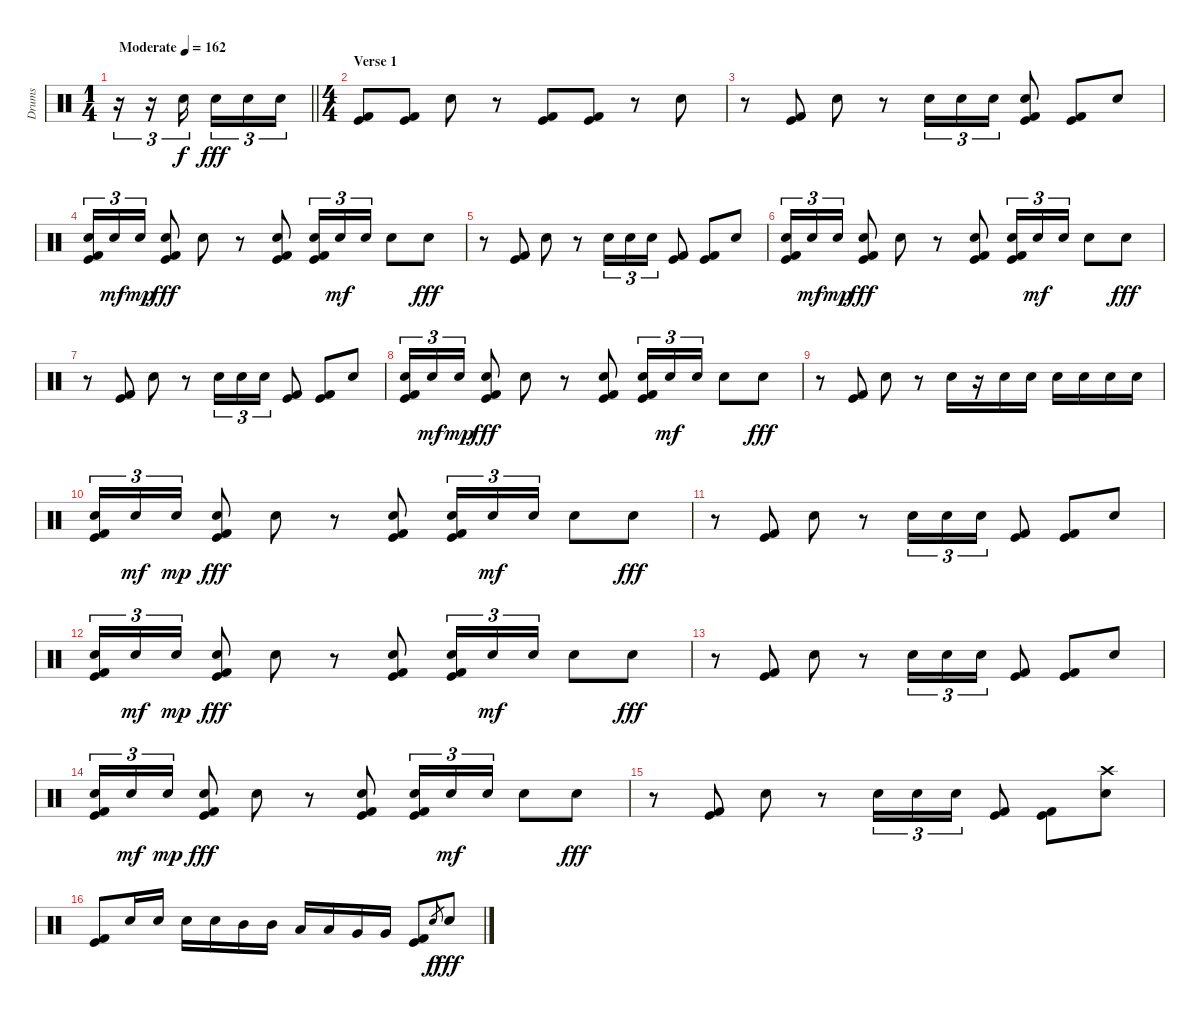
\track ("Drums" "Drums") {instrument percussion}
\staff {score}
\articulation defaults
\ts (1 4)
\tempo (162 "Moderate")
\clef neutral
\barLineRight lightlight
\ks c
r.16{tu (3 2) dy f} r.16{tu (3 2)} "Electric Snare (hit)".16{tu (3 2) beam splitsecondary} "Electric Snare (hit)".16{tu (3 2) dy fff} "Electric Snare (hit)".16{tu (3 2)} "Electric Snare (hit)".16{tu (3 2)} |
\ts (4 4)
\section ("" "Verse 1")
\ks aminor
("Kick (hit)" "Kick (hit) 2").8 ("Kick (hit)" "Kick (hit) 2").8 "Electric Snare (hit)".8 r.8 ("Kick (hit)" "Kick (hit) 2").8 ("Kick (hit)" "Kick (hit) 2").8 r.8 "Electric Snare (hit)".8 |
r.8 ("Kick (hit)" "Kick (hit) 2").8 "Electric Snare (hit)".8 r.8 "Electric Snare (hit)".16{tu (3 2)} "Electric Snare (hit)".16{tu (3 2)} "Electric Snare (hit)".16{tu (3 2)} ("Electric Snare (hit)" "Kick (hit)" "Kick (hit) 2").8 ("Kick (hit)" "Kick (hit) 2").8 "Electric Snare (hit)".8 |
("Electric Snare (hit)" "Kick (hit)" "Kick (hit) 2").16{tu (3 2)} "Electric Snare (hit)".16{tu (3 2) dy mf} "Electric Snare (hit)".16{tu (3 2) dy mp} ("Electric Snare (hit)" "Kick (hit)" "Kick (hit) 2").8{dy fff} "Electric Snare (hit)".8 r.8 ("Electric Snare (hit)" "Kick (hit)" "Kick (hit) 2").8 ("Electric Snare (hit)" "Kick (hit)" "Kick (hit) 2").16{tu (3 2)} "Electric Snare (hit)".16{tu (3 2) dy mf} "Electric Snare (hit)".16{tu (3 2)} "Electric Snare (hit)".8 "Electric Snare (hit)".8{dy fff} |
r.8 ("Kick (hit)" "Kick (hit) 2").8 "Electric Snare (hit)".8 r.8 "Electric Snare (hit)".16{tu (3 2)} "Electric Snare (hit)".16{tu (3 2)} "Electric Snare (hit)".16{tu (3 2)} ("Kick (hit)" "Kick (hit) 2").8 ("Kick (hit)" "Kick (hit) 2").8 "Electric Snare (hit)".8 |
("Electric Snare (hit)" "Kick (hit)" "Kick (hit) 2").16{tu (3 2)} "Electric Snare (hit)".16{tu (3 2) dy mf} "Electric Snare (hit)".16{tu (3 2) dy mp} ("Electric Snare (hit)" "Kick (hit)" "Kick (hit) 2").8{dy fff} "Electric Snare (hit)".8 r.8 ("Electric Snare (hit)" "Kick (hit)" "Kick (hit) 2").8 ("Electric Snare (hit)" "Kick (hit)" "Kick (hit) 2").16{tu (3 2)} "Electric Snare (hit)".16{tu (3 2) dy mf} "Electric Snare (hit)".16{tu (3 2)} "Electric Snare (hit)".8 "Electric Snare (hit)".8{dy fff} |
r.8 ("Kick (hit)" "Kick (hit) 2").8 "Electric Snare (hit)".8 r.8 "Electric Snare (hit)".16{tu (3 2)} "Electric Snare (hit)".16{tu (3 2)} "Electric Snare (hit)".16{tu (3 2)} ("Kick (hit)" "Kick (hit) 2").8 ("Kick (hit)" "Kick (hit) 2").8 "Electric Snare (hit)".8 |
("Electric Snare (hit)" "Kick (hit)" "Kick (hit) 2").16{tu (3 2)} "Electric Snare (hit)".16{tu (3 2) dy mf} "Electric Snare (hit)".16{tu (3 2) dy mp} ("Electric Snare (hit)" "Kick (hit)" "Kick (hit) 2").8{dy fff} "Electric Snare (hit)".8 r.8 ("Electric Snare (hit)" "Kick (hit)" "Kick (hit) 2").8 ("Electric Snare (hit)" "Kick (hit)" "Kick (hit) 2").16{tu (3 2)} "Electric Snare (hit)".16{tu (3 2) dy mf} "Electric Snare (hit)".16{tu (3 2)} "Electric Snare (hit)".8 "Electric Snare (hit)".8{dy fff} |
r.8 ("Kick (hit)" "Kick (hit) 2").8 "Electric Snare (hit)".8 r.8 "Electric Snare (hit)".16 r.16 "Electric Snare (hit)".16 "Electric Snare (hit)".16 "Electric Snare (hit)".16 "Electric Snare (hit)".16 "Electric Snare (hit)".16 "Electric Snare (hit)".16 |
("Electric Snare (hit)" "Kick (hit)" "Kick (hit) 2").16{tu (3 2)} "Electric Snare (hit)".16{tu (3 2) dy mf} "Electric Snare (hit)".16{tu (3 2) dy mp} ("Electric Snare (hit)" "Kick (hit)" "Kick (hit) 2").8{dy fff} "Electric Snare (hit)".8 r.8 ("Electric Snare (hit)" "Kick (hit)" "Kick (hit) 2").8 ("Electric Snare (hit)" "Kick (hit)" "Kick (hit) 2").16{tu (3 2)} "Electric Snare (hit)".16{tu (3 2) dy mf} "Electric Snare (hit)".16{tu (3 2)} "Electric Snare (hit)".8 "Electric Snare (hit)".8{dy fff} |
r.8 ("Kick (hit)" "Kick (hit) 2").8 "Electric Snare (hit)".8 r.8 "Electric Snare (hit)".16{tu (3 2)} "Electric Snare (hit)".16{tu (3 2)} "Electric Snare (hit)".16{tu (3 2)} ("Kick (hit)" "Kick (hit) 2").8 ("Kick (hit)" "Kick (hit) 2").8 "Electric Snare (hit)".8 |
("Electric Snare (hit)" "Kick (hit)" "Kick (hit) 2").16{tu (3 2)} "Electric Snare (hit)".16{tu (3 2) dy mf} "Electric Snare (hit)".16{tu (3 2) dy mp} ("Electric Snare (hit)" "Kick (hit)" "Kick (hit) 2").8{dy fff} "Electric Snare (hit)".8 r.8 ("Electric Snare (hit)" "Kick (hit)" "Kick (hit) 2").8 ("Electric Snare (hit)" "Kick (hit)" "Kick (hit) 2").16{tu (3 2)} "Electric Snare (hit)".16{tu (3 2) dy mf} "Electric Snare (hit)".16{tu (3 2)} "Electric Snare (hit)".8 "Electric Snare (hit)".8{dy fff} |
r.8 ("Kick (hit)" "Kick (hit) 2").8 "Electric Snare (hit)".8 r.8 "Electric Snare (hit)".16{tu (3 2)} "Electric Snare (hit)".16{tu (3 2)} "Electric Snare (hit)".16{tu (3 2)} ("Kick (hit)" "Kick (hit) 2").8 ("Kick (hit)" "Kick (hit) 2").8 "Electric Snare (hit)".8 |
("Electric Snare (hit)" "Kick (hit)" "Kick (hit) 2").16{tu (3 2)} "Electric Snare (hit)".16{tu (3 2) dy mf} "Electric Snare (hit)".16{tu (3 2) dy mp} ("Electric Snare (hit)" "Kick (hit)" "Kick (hit) 2").8{dy fff} "Electric Snare (hit)".8 r.8 ("Electric Snare (hit)" "Kick (hit)" "Kick (hit) 2").8 ("Electric Snare (hit)" "Kick (hit)" "Kick (hit) 2").16{tu (3 2)} "Electric Snare (hit)".16{tu (3 2) dy mf} "Electric Snare (hit)".16{tu (3 2)} "Electric Snare (hit)".8 "Electric Snare (hit)".8{dy fff} |
r.8 ("Kick (hit)" "Kick (hit) 2").8 "Electric Snare (hit)".8 r.8 "Electric Snare (hit)".16{tu (3 2)} "Electric Snare (hit)".16{tu (3 2)} "Electric Snare (hit)".16{tu (3 2)} ("Kick (hit)" "Kick (hit) 2").8 ("Kick (hit)" "Kick (hit) 2").8 ("Crash high (hit)" "Electric Snare (hit)").8 |
("Kick (hit)" "Kick (hit) 2").8 "Electric Snare (hit)".16 "Electric Snare (hit)".16 "Electric Snare (hit)".16 "Electric Snare (hit)".16 "Mid Tom (hit)".16 "Mid Tom (hit)".16 "Low Tom (hit)".16 "Low Tom (hit)".16 "Very Low Tom (hit)".16 "Very Low Tom (hit)".16 ("Kick (hit)" "Kick (hit) 2").8 "Electric Snare (hit)".8{gr dy f} "Electric Snare (hit)".8{dy fff}
